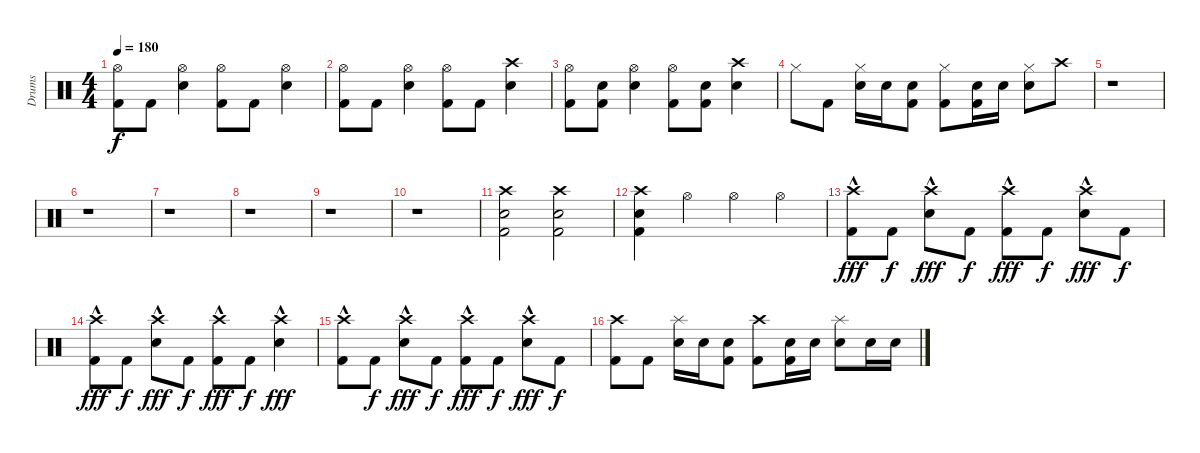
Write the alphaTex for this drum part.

\track ("Drums" "Drums") {instrument percussion}
\staff {score}
\articulation defaults
\ts (4 4)
\tempo 180
\clef neutral
\ks c
("Kick (hit) 2" "Hi-Hat (open)").8{dy f} "Kick (hit) 2".8 ("Electric Snare (hit)" "Hi-Hat (open)").4 ("Kick (hit) 2" "Hi-Hat (open)").8 "Kick (hit) 2".8 ("Electric Snare (hit)" "Hi-Hat (open)").4 |
("Kick (hit) 2" "Hi-Hat (open)").8 "Kick (hit) 2".8 ("Electric Snare (hit)" "Hi-Hat (open)").4 ("Kick (hit) 2" "Hi-Hat (open)").8 "Kick (hit) 2".8 ("Electric Snare (hit)" "Crash high (hit)").4 |
("Kick (hit) 2" "Hi-Hat (open)").8 ("Kick (hit) 2" "Electric Snare (hit)").8 ("Electric Snare (hit)" "Hi-Hat (open)").4 ("Kick (hit) 2" "Hi-Hat (open)").8 ("Kick (hit) 2" "Electric Snare (hit)").8 ("Electric Snare (hit)" "Crash high (hit)").4 |
"Hi-Hat (closed)".8 "Kick (hit) 2".8 ("Electric Snare (hit)" "Hi-Hat (closed)").16 "Electric Snare (hit)".16 ("Kick (hit) 2" "Electric Snare (hit)").8 ("Kick (hit) 2" "Hi-Hat (closed)").8 ("Kick (hit) 2" "Electric Snare (hit)").16 "Electric Snare (hit)".16 ("Electric Snare (hit)" "Hi-Hat (closed)").8 "Crash high (hit)".8 |
r.1 |
r.1 |
r.1 |
r.1 |
r.1 |
r.1 |
("Kick (hit) 2" "Electric Snare (hit)" "Crash high (hit)").2 ("Kick (hit) 2" "Electric Snare (hit)" "Crash high (hit)").2 |
("Kick (hit) 2" "Electric Snare (hit)" "Crash high (hit)").4 "Hi-Hat (open)".4 "Hi-Hat (open)".4 "Hi-Hat (open)".4 |
("Kick (hit) 2" "Crash high (hit)"{hac}).8{dy fff} "Kick (hit) 2".8{dy f} ("Electric Snare (hit)" "Crash high (hit)"{hac}).8{dy fff} "Kick (hit) 2".8{dy f} ("Kick (hit) 2" "Crash high (hit)"{hac}).8{dy fff} "Kick (hit) 2".8{dy f} ("Electric Snare (hit)" "Crash high (hit)"{hac}).8{dy fff} "Kick (hit) 2".8{dy f} |
("Kick (hit) 2" "Crash high (hit)"{hac}).8{dy fff} "Kick (hit) 2".8{dy f} ("Electric Snare (hit)" "Crash high (hit)"{hac}).8{dy fff} "Kick (hit) 2".8{dy f} ("Kick (hit) 2" "Crash high (hit)"{hac}).8{dy fff} "Kick (hit) 2".8{dy f} ("Electric Snare (hit)" "Crash high (hit)"{hac}).4{dy fff} |
("Kick (hit) 2" "Crash high (hit)"{hac}).8 "Kick (hit) 2".8{dy f} ("Electric Snare (hit)" "Crash high (hit)"{hac}).8{dy fff} "Kick (hit) 2".8{dy f} ("Kick (hit) 2" "Crash high (hit)"{hac}).8{dy fff} "Kick (hit) 2".8{dy f} ("Electric Snare (hit)" "Crash high (hit)"{hac}).8{dy fff} "Kick (hit) 2".8{dy f} |
("Kick (hit) 2" "Crash high (hit)").8 "Kick (hit) 2".8 ("Electric Snare (hit)" "Splash (hit)").16 "Electric Snare (hit)".16 ("Kick (hit) 2" "Electric Snare (hit)").8 ("Kick (hit) 2" "Crash high (hit)").8 ("Kick (hit) 2" "Electric Snare (hit)").16 "Electric Snare (hit)".16 ("Electric Snare (hit)" "Splash (hit)").8 "Electric Snare (hit)".16 "Electric Snare (hit)".16
